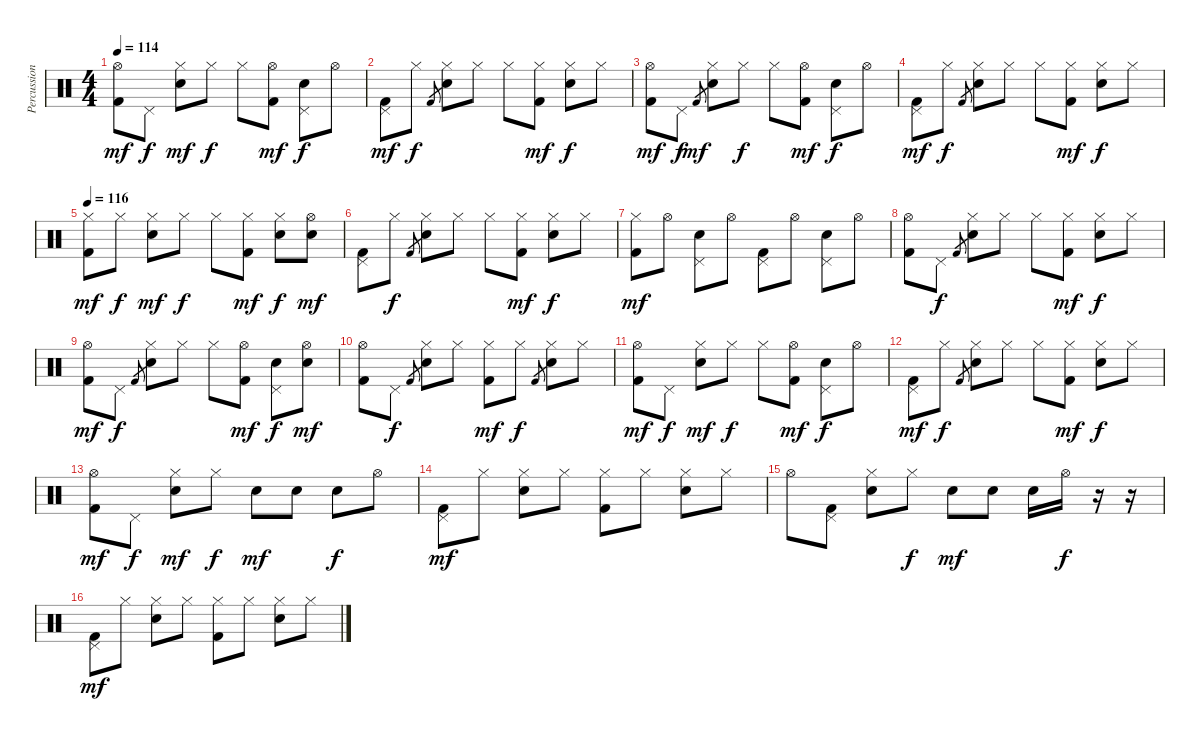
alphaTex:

\track ("Percussion" "Percussion") {instrument percussion}
\staff {score}
\articulation defaults
\ts (4 4)
\tempo 114
\clef neutral
\ks c
("Hi-Hat (open)" "Kick (hit) 2").8{dy mf} "Pedal Hi-Hat (hit)".8{dy f} ("Hi-Hat (closed)" "Snare (hit) 2").8{dy mf} "Hi-Hat (closed)".8{dy f} "Hi-Hat (closed)".8 ("Hi-Hat (open)" "Kick (hit) 2").8{dy mf} ("Pedal Hi-Hat (hit)" "Snare (hit) 2").8{dy f} "Hi-Hat (open)".8 |
("Pedal Hi-Hat (hit)" "Kick (hit) 2").8{dy mf} "Hi-Hat (closed)".8{dy f} "Kick (hit) 2".8{gr} ("Hi-Hat (closed)" "Snare (hit) 2").8 "Hi-Hat (closed)".8 "Hi-Hat (closed)".8 ("Hi-Hat (closed)" "Kick (hit) 2").8{dy mf} ("Hi-Hat (closed)" "Snare (hit) 2").8{dy f} "Hi-Hat (closed)".8 |
("Hi-Hat (open)" "Kick (hit) 2").8{dy mf} "Pedal Hi-Hat (hit)".8{dy f} "Kick (hit) 2".8{gr dy mf} ("Hi-Hat (closed)" "Snare (hit) 2").8 "Hi-Hat (closed)".8{dy f} "Hi-Hat (closed)".8 ("Hi-Hat (open)" "Kick (hit) 2").8{dy mf} ("Pedal Hi-Hat (hit)" "Snare (hit) 2").8{dy f} "Hi-Hat (open)".8 |
("Pedal Hi-Hat (hit)" "Kick (hit) 2").8{dy mf} "Hi-Hat (closed)".8{dy f} "Kick (hit) 2".8{gr} ("Hi-Hat (closed)" "Snare (hit) 2").8 "Hi-Hat (closed)".8 "Hi-Hat (closed)".8 ("Hi-Hat (closed)" "Kick (hit) 2").8{dy mf} ("Hi-Hat (closed)" "Snare (hit) 2").8{dy f} "Hi-Hat (closed)".8 |
\tempo 116
("Hi-Hat (closed)" "Kick (hit) 2").8{dy mf} "Hi-Hat (closed)".8{dy f} ("Hi-Hat (closed)" "Snare (hit) 2").8{dy mf} "Hi-Hat (closed)".8{dy f} "Hi-Hat (closed)".8 ("Hi-Hat (closed)" "Kick (hit) 2").8{dy mf} ("Hi-Hat (closed)" "Snare (hit) 2").8{dy f} ("Hi-Hat (open)" "Snare (hit) 2").8{dy mf} |
("Pedal Hi-Hat (hit)" "Kick (hit) 2").8 "Hi-Hat (closed)".8{dy f} "Kick (hit) 2".8{gr} ("Hi-Hat (closed)" "Snare (hit) 2").8 "Hi-Hat (closed)".8 "Hi-Hat (closed)".8 ("Hi-Hat (closed)" "Kick (hit) 2").8{dy mf} ("Hi-Hat (closed)" "Snare (hit) 2").8{dy f} "Hi-Hat (closed)".8 |
("Hi-Hat (closed)" "Kick (hit) 2").8{dy mf} "Hi-Hat (open)".8 ("Pedal Hi-Hat (hit)" "Snare (hit) 2").8 "Hi-Hat (open)".8 ("Pedal Hi-Hat (hit)" "Kick (hit) 2").8 "Hi-Hat (open)".8 ("Pedal Hi-Hat (hit)" "Snare (hit) 2").8 "Hi-Hat (open)".8 |
("Hi-Hat (open)" "Kick (hit) 2").8 "Pedal Hi-Hat (hit)".8{dy f} "Kick (hit) 2".8{gr} ("Hi-Hat (closed)" "Snare (hit) 2").8 "Hi-Hat (closed)".8 "Hi-Hat (closed)".8 ("Hi-Hat (closed)" "Kick (hit) 2").8{dy mf} ("Hi-Hat (closed)" "Snare (hit) 2").8{dy f} "Hi-Hat (closed)".8 |
("Hi-Hat (open)" "Kick (hit) 2").8{dy mf} "Pedal Hi-Hat (hit)".8{dy f} "Kick (hit) 2".8{gr} ("Hi-Hat (closed)" "Snare (hit) 2").8 "Hi-Hat (closed)".8 "Hi-Hat (closed)".8 ("Hi-Hat (open)" "Kick (hit) 2").8{dy mf} ("Pedal Hi-Hat (hit)" "Snare (hit) 2").8{dy f} ("Hi-Hat (open)" "Snare (hit) 2").8{dy mf} |
("Hi-Hat (open)" "Kick (hit) 2").8 "Pedal Hi-Hat (hit)".8{dy f} "Kick (hit) 2".8{gr} ("Hi-Hat (closed)" "Snare (hit) 2").8 "Hi-Hat (closed)".8 ("Hi-Hat (closed)" "Kick (hit) 2").8{dy mf} "Hi-Hat (closed)".8{dy f} "Kick (hit) 2".8{gr} ("Hi-Hat (closed)" "Snare (hit) 2").8 "Hi-Hat (closed)".8 |
("Hi-Hat (open)" "Kick (hit) 2").8{dy mf} "Pedal Hi-Hat (hit)".8{dy f} ("Hi-Hat (closed)" "Snare (hit) 2").8{dy mf} "Hi-Hat (closed)".8{dy f} "Hi-Hat (closed)".8 ("Hi-Hat (open)" "Kick (hit) 2").8{dy mf} ("Pedal Hi-Hat (hit)" "Snare (hit) 2").8{dy f} "Hi-Hat (open)".8 |
("Pedal Hi-Hat (hit)" "Kick (hit) 2").8{dy mf} "Hi-Hat (closed)".8{dy f} "Kick (hit) 2".8{gr} ("Hi-Hat (closed)" "Snare (hit) 2").8 "Hi-Hat (closed)".8 "Hi-Hat (closed)".8 ("Hi-Hat (closed)" "Kick (hit) 2").8{dy mf} ("Hi-Hat (closed)" "Snare (hit) 2").8{dy f} "Hi-Hat (closed)".8 |
("Hi-Hat (open)" "Kick (hit) 2").8{dy mf} "Pedal Hi-Hat (hit)".8{dy f} ("Hi-Hat (closed)" "Snare (hit) 2").8{dy mf} "Hi-Hat (closed)".8{dy f} "Snare (hit) 2".8{dy mf} "Snare (hit) 2".8 "Snare (hit) 2".8{dy f} "Hi-Hat (open)".8 |
("Pedal Hi-Hat (hit)" "Kick (hit) 2").8{dy mf} "Hi-Hat (closed)".8 ("Hi-Hat (closed)" "Snare (hit) 2").8 "Hi-Hat (closed)".8 ("Hi-Hat (closed)" "Kick (hit) 2").8 "Hi-Hat (closed)".8 ("Hi-Hat (closed)" "Snare (hit) 2").8 "Hi-Hat (closed)".8 |
"Hi-Hat (open)".8 ("Pedal Hi-Hat (hit)" "Kick (hit) 2").8 ("Hi-Hat (closed)" "Snare (hit) 2").8 "Hi-Hat (closed)".8{dy f} "Snare (hit) 2".8{dy mf} "Snare (hit) 2".8 "Snare (hit) 2".16 "Hi-Hat (open)".16{dy f} r.16 r.16 |
("Pedal Hi-Hat (hit)" "Kick (hit) 2").8{dy mf} "Hi-Hat (closed)".8 ("Hi-Hat (closed)" "Snare (hit) 2").8 "Hi-Hat (closed)".8 ("Hi-Hat (closed)" "Kick (hit) 2").8 "Hi-Hat (closed)".8 ("Hi-Hat (closed)" "Snare (hit) 2").8 "Hi-Hat (closed)".8
